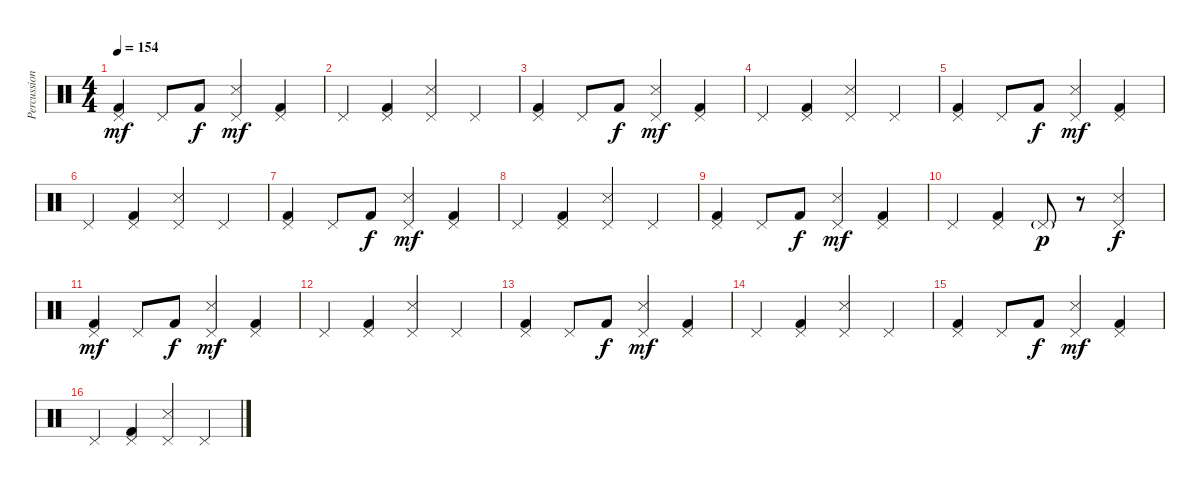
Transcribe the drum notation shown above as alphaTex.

\track ("Percussion" "Percussion") {instrument percussion}
\staff {score}
\articulation defaults
\ts (4 4)
\tempo 154
\clef neutral
\ks c
("Kick (hit) 2" "Pedal Hi-Hat (hit)").4{dy mf} "Pedal Hi-Hat (hit)".8 "Kick (hit) 2".8{dy f} ("Snare (side stick) 3" "Pedal Hi-Hat (hit)").4{dy mf} ("Kick (hit) 2" "Pedal Hi-Hat (hit)").4 |
"Pedal Hi-Hat (hit)".4 ("Kick (hit) 2" "Pedal Hi-Hat (hit)").4 ("Snare (side stick) 3" "Pedal Hi-Hat (hit)").4 "Pedal Hi-Hat (hit)".4 |
("Kick (hit) 2" "Pedal Hi-Hat (hit)").4 "Pedal Hi-Hat (hit)".8 "Kick (hit) 2".8{dy f} ("Snare (side stick) 3" "Pedal Hi-Hat (hit)").4{dy mf} ("Kick (hit) 2" "Pedal Hi-Hat (hit)").4 |
"Pedal Hi-Hat (hit)".4 ("Kick (hit) 2" "Pedal Hi-Hat (hit)").4 ("Snare (side stick) 3" "Pedal Hi-Hat (hit)").4 "Pedal Hi-Hat (hit)".4 |
("Kick (hit) 2" "Pedal Hi-Hat (hit)").4 "Pedal Hi-Hat (hit)".8 "Kick (hit) 2".8{dy f} ("Snare (side stick) 3" "Pedal Hi-Hat (hit)").4{dy mf} ("Kick (hit) 2" "Pedal Hi-Hat (hit)").4 |
"Pedal Hi-Hat (hit)".4 ("Kick (hit) 2" "Pedal Hi-Hat (hit)").4 ("Snare (side stick) 3" "Pedal Hi-Hat (hit)").4 "Pedal Hi-Hat (hit)".4 |
("Kick (hit) 2" "Pedal Hi-Hat (hit)").4 "Pedal Hi-Hat (hit)".8 "Kick (hit) 2".8{dy f} ("Snare (side stick) 3" "Pedal Hi-Hat (hit)").4{dy mf} ("Kick (hit) 2" "Pedal Hi-Hat (hit)").4 |
"Pedal Hi-Hat (hit)".4 ("Kick (hit) 2" "Pedal Hi-Hat (hit)").4 ("Snare (side stick) 3" "Pedal Hi-Hat (hit)").4 "Pedal Hi-Hat (hit)".4 |
("Kick (hit) 2" "Pedal Hi-Hat (hit)").4 "Pedal Hi-Hat (hit)".8 "Kick (hit) 2".8{dy f} ("Snare (side stick) 3" "Pedal Hi-Hat (hit)").4{dy mf} ("Kick (hit) 2" "Pedal Hi-Hat (hit)").4 |
"Pedal Hi-Hat (hit)".4 ("Kick (hit) 2" "Pedal Hi-Hat (hit)").4 "Pedal Hi-Hat (hit)"{g}.8{dy p} r.8 ("Snare (side stick) 3" "Pedal Hi-Hat (hit)").4{dy f} |
("Kick (hit) 2" "Pedal Hi-Hat (hit)").4{dy mf} "Pedal Hi-Hat (hit)".8 "Kick (hit) 2".8{dy f} ("Snare (side stick) 3" "Pedal Hi-Hat (hit)").4{dy mf} ("Kick (hit) 2" "Pedal Hi-Hat (hit)").4 |
"Pedal Hi-Hat (hit)".4 ("Kick (hit) 2" "Pedal Hi-Hat (hit)").4 ("Snare (side stick) 3" "Pedal Hi-Hat (hit)").4 "Pedal Hi-Hat (hit)".4 |
("Kick (hit) 2" "Pedal Hi-Hat (hit)").4 "Pedal Hi-Hat (hit)".8 "Kick (hit) 2".8{dy f} ("Snare (side stick) 3" "Pedal Hi-Hat (hit)").4{dy mf} ("Kick (hit) 2" "Pedal Hi-Hat (hit)").4 |
"Pedal Hi-Hat (hit)".4 ("Kick (hit) 2" "Pedal Hi-Hat (hit)").4 ("Snare (side stick) 3" "Pedal Hi-Hat (hit)").4 "Pedal Hi-Hat (hit)".4 |
("Kick (hit) 2" "Pedal Hi-Hat (hit)").4 "Pedal Hi-Hat (hit)".8 "Kick (hit) 2".8{dy f} ("Snare (side stick) 3" "Pedal Hi-Hat (hit)").4{dy mf} ("Kick (hit) 2" "Pedal Hi-Hat (hit)").4 |
"Pedal Hi-Hat (hit)".4 ("Kick (hit) 2" "Pedal Hi-Hat (hit)").4 ("Snare (side stick) 3" "Pedal Hi-Hat (hit)").4 "Pedal Hi-Hat (hit)".4
